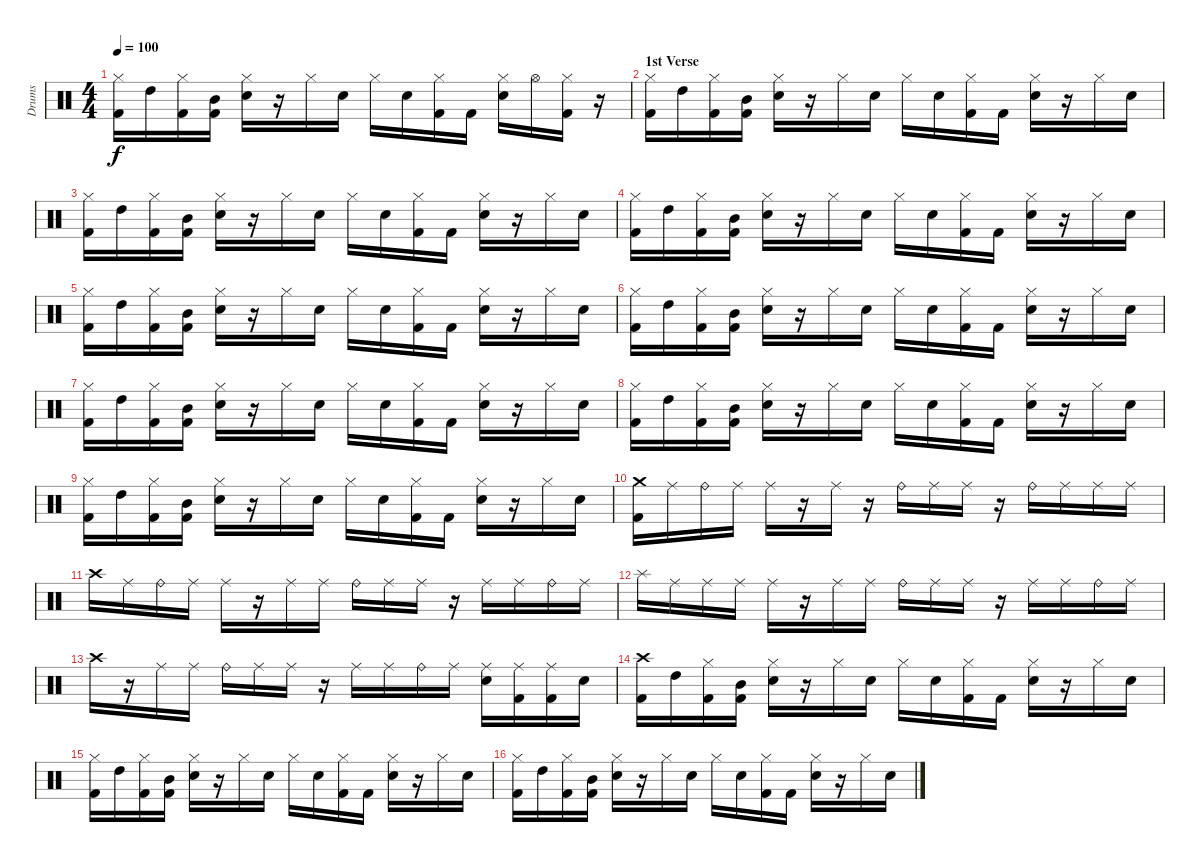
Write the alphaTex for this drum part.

\track ("Drums" "Drums") {instrument percussion}
\staff {score}
\articulation defaults
\ts (4 4)
\tempo 100
\clef neutral
\ks c
("Hi-Hat (closed)" "Kick (hit) 2").16{dy f} "High Tom (hit)".16 ("Hi-Hat (closed)" "Kick (hit) 2").16 ("Mid Tom (hit)" "Kick (hit) 2").16 ("Hi-Hat (closed)" "Electric Snare (hit)").16 r.16 "Hi-Hat (closed)".16 "Electric Snare (hit)".16 "Hi-Hat (closed)".16 "Electric Snare (hit)".16 ("Hi-Hat (closed)" "Kick (hit) 2").16 "Kick (hit) 2".16 ("Hi-Hat (closed)" "Electric Snare (hit)").16 "Hi-Hat (open)".16 ("Hi-Hat (closed)" "Kick (hit) 2").16 r.16 |
\section ("" "1st Verse")
("Hi-Hat (closed)" "Kick (hit) 2").16 "High Tom (hit)".16 ("Hi-Hat (closed)" "Kick (hit) 2").16 ("Mid Tom (hit)" "Kick (hit) 2").16 ("Hi-Hat (closed)" "Electric Snare (hit)").16 r.16 "Hi-Hat (closed)".16 "Electric Snare (hit)".16 "Hi-Hat (closed)".16 "Electric Snare (hit)".16 ("Hi-Hat (closed)" "Kick (hit) 2").16 "Kick (hit) 2".16 ("Hi-Hat (closed)" "Electric Snare (hit)").16 r.16 "Hi-Hat (closed)".16 "Electric Snare (hit)".16 |
("Hi-Hat (closed)" "Kick (hit) 2").16 "High Tom (hit)".16 ("Hi-Hat (closed)" "Kick (hit) 2").16 ("Mid Tom (hit)" "Kick (hit) 2").16 ("Hi-Hat (closed)" "Electric Snare (hit)").16 r.16 "Hi-Hat (closed)".16 "Electric Snare (hit)".16 "Hi-Hat (closed)".16 "Electric Snare (hit)".16 ("Hi-Hat (closed)" "Kick (hit) 2").16 "Kick (hit) 2".16 ("Hi-Hat (closed)" "Electric Snare (hit)").16 r.16 "Hi-Hat (closed)".16 "Electric Snare (hit)".16 |
("Hi-Hat (closed)" "Kick (hit) 2").16 "High Tom (hit)".16 ("Hi-Hat (closed)" "Kick (hit) 2").16 ("Mid Tom (hit)" "Kick (hit) 2").16 ("Hi-Hat (closed)" "Electric Snare (hit)").16 r.16 "Hi-Hat (closed)".16 "Electric Snare (hit)".16 "Hi-Hat (closed)".16 "Electric Snare (hit)".16 ("Hi-Hat (closed)" "Kick (hit) 2").16 "Kick (hit) 2".16 ("Hi-Hat (closed)" "Electric Snare (hit)").16 r.16 "Hi-Hat (closed)".16 "Electric Snare (hit)".16 |
("Hi-Hat (closed)" "Kick (hit) 2").16 "High Tom (hit)".16 ("Hi-Hat (closed)" "Kick (hit) 2").16 ("Mid Tom (hit)" "Kick (hit) 2").16 ("Hi-Hat (closed)" "Electric Snare (hit)").16 r.16 "Hi-Hat (closed)".16 "Electric Snare (hit)".16 "Hi-Hat (closed)".16 "Electric Snare (hit)".16 ("Hi-Hat (closed)" "Kick (hit) 2").16 "Kick (hit) 2".16 ("Hi-Hat (closed)" "Electric Snare (hit)").16 r.16 "Hi-Hat (closed)".16 "Electric Snare (hit)".16 |
("Hi-Hat (closed)" "Kick (hit) 2").16 "High Tom (hit)".16 ("Hi-Hat (closed)" "Kick (hit) 2").16 ("Mid Tom (hit)" "Kick (hit) 2").16 ("Hi-Hat (closed)" "Electric Snare (hit)").16 r.16 "Hi-Hat (closed)".16 "Electric Snare (hit)".16 "Hi-Hat (closed)".16 "Electric Snare (hit)".16 ("Hi-Hat (closed)" "Kick (hit) 2").16 "Kick (hit) 2".16 ("Hi-Hat (closed)" "Electric Snare (hit)").16 r.16 "Hi-Hat (closed)".16 "Electric Snare (hit)".16 |
("Hi-Hat (closed)" "Kick (hit) 2").16 "High Tom (hit)".16 ("Hi-Hat (closed)" "Kick (hit) 2").16 ("Mid Tom (hit)" "Kick (hit) 2").16 ("Hi-Hat (closed)" "Electric Snare (hit)").16 r.16 "Hi-Hat (closed)".16 "Electric Snare (hit)".16 "Hi-Hat (closed)".16 "Electric Snare (hit)".16 ("Hi-Hat (closed)" "Kick (hit) 2").16 "Kick (hit) 2".16 ("Hi-Hat (closed)" "Electric Snare (hit)").16 r.16 "Hi-Hat (closed)".16 "Electric Snare (hit)".16 |
("Hi-Hat (closed)" "Kick (hit) 2").16 "High Tom (hit)".16 ("Hi-Hat (closed)" "Kick (hit) 2").16 ("Mid Tom (hit)" "Kick (hit) 2").16 ("Hi-Hat (closed)" "Electric Snare (hit)").16 r.16 "Hi-Hat (closed)".16 "Electric Snare (hit)".16 "Hi-Hat (closed)".16 "Electric Snare (hit)".16 ("Hi-Hat (closed)" "Kick (hit) 2").16 "Kick (hit) 2".16 ("Hi-Hat (closed)" "Electric Snare (hit)").16 r.16 "Hi-Hat (closed)".16 "Electric Snare (hit)".16 |
("Hi-Hat (closed)" "Kick (hit) 2").16 "High Tom (hit)".16 ("Hi-Hat (closed)" "Kick (hit) 2").16 ("Mid Tom (hit)" "Kick (hit) 2").16 ("Hi-Hat (closed)" "Electric Snare (hit)").16 r.16 "Hi-Hat (closed)".16 "Electric Snare (hit)".16 "Hi-Hat (closed)".16 "Electric Snare (hit)".16 ("Hi-Hat (closed)" "Kick (hit) 2").16 "Kick (hit) 2".16 ("Hi-Hat (closed)" "Electric Snare (hit)").16 r.16 "Hi-Hat (closed)".16 "Electric Snare (hit)".16 |
("Crash medium (hit)" "Kick (hit) 2").16 "Ride (middle)".16 "Ride (bell)".16 "Ride (middle)".16 "Ride (middle)".16 r.16 "Ride (middle)".16 r.16 "Ride (bell)".16 "Ride (middle)".16 "Ride (middle)".16 r.16 "Ride (bell)".16 "Ride (middle)".16 "Ride (middle)".16 "Ride (middle)".16 |
"Crash high (hit)".16 "Ride (middle)".16 "Ride (bell)".16 "Ride (middle)".16 "Ride (middle)".16 r.16 "Ride (middle)".16 "Ride (middle)".16 "Ride (bell)".16 "Ride (middle)".16 "Ride (middle)".16 r.16 "Ride (middle)".16 "Ride (middle)".16 "Ride (bell)".16 "Ride (middle)".16 |
"Splash (hit)".16 "Ride (middle)".16 "Ride (middle)".16 "Ride (middle)".16 "Ride (middle)".16 r.16 "Ride (middle)".16 "Ride (middle)".16 "Ride (bell)".16 "Ride (middle)".16 "Ride (middle)".16 r.16 "Ride (middle)".16 "Ride (middle)".16 "Ride (bell)".16 "Ride (middle)".16 |
"Crash high (hit)".16 r.16 "Ride (middle)".16 "Ride (middle)".16 "Ride (bell)".16 "Ride (middle)".16 "Ride (middle)".16 r.16 "Ride (middle)".16 "Ride (middle)".16 "Ride (bell)".16 "Ride (middle)".16 ("Ride (middle)" "Electric Snare (hit)").16 ("Ride (middle)" "Kick (hit) 2").16 ("Ride (middle)" "Kick (hit) 2").16 "Electric Snare (hit)".16 |
("Crash high (hit)" "Kick (hit) 2").16 "High Tom (hit)".16 ("Hi-Hat (closed)" "Kick (hit) 2").16 ("Mid Tom (hit)" "Kick (hit) 2").16 ("Hi-Hat (closed)" "Electric Snare (hit)").16 r.16 "Hi-Hat (closed)".16 "Electric Snare (hit)".16 "Hi-Hat (closed)".16 "Electric Snare (hit)".16 ("Hi-Hat (closed)" "Kick (hit) 2").16 "Kick (hit) 2".16 ("Hi-Hat (closed)" "Electric Snare (hit)").16 r.16 "Hi-Hat (closed)".16 "Electric Snare (hit)".16 |
("Hi-Hat (closed)" "Kick (hit) 2").16 "High Tom (hit)".16 ("Hi-Hat (closed)" "Kick (hit) 2").16 ("Mid Tom (hit)" "Kick (hit) 2").16 ("Hi-Hat (closed)" "Electric Snare (hit)").16 r.16 "Hi-Hat (closed)".16 "Electric Snare (hit)".16 "Hi-Hat (closed)".16 "Electric Snare (hit)".16 ("Hi-Hat (closed)" "Kick (hit) 2").16 "Kick (hit) 2".16 ("Hi-Hat (closed)" "Electric Snare (hit)").16 r.16 "Hi-Hat (closed)".16 "Electric Snare (hit)".16 |
("Hi-Hat (closed)" "Kick (hit) 2").16 "High Tom (hit)".16 ("Hi-Hat (closed)" "Kick (hit) 2").16 ("Mid Tom (hit)" "Kick (hit) 2").16 ("Hi-Hat (closed)" "Electric Snare (hit)").16 r.16 "Hi-Hat (closed)".16 "Electric Snare (hit)".16 "Hi-Hat (closed)".16 "Electric Snare (hit)".16 ("Hi-Hat (closed)" "Kick (hit) 2").16 "Kick (hit) 2".16 ("Hi-Hat (closed)" "Electric Snare (hit)").16 r.16 "Hi-Hat (closed)".16 "Electric Snare (hit)".16
